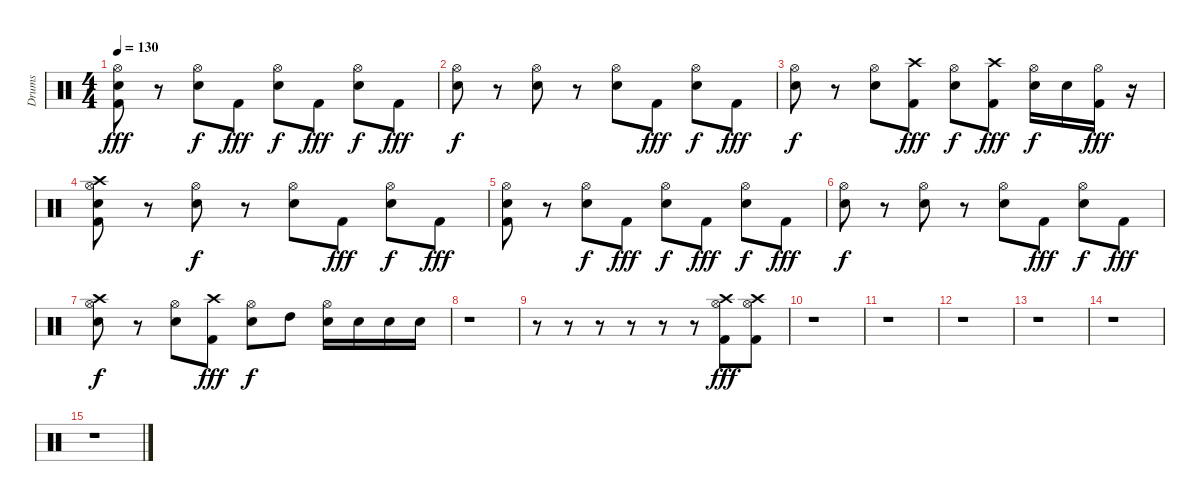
\track ("Drums" "Drums") {instrument percussion}
\staff {score}
\articulation defaults
\ts (4 4)
\tempo 130
\clef neutral
\ks c
("Kick (hit) 2" "Snare (hit) 2" "Hi-Hat (open)").8{dy fff} r.8 ("Snare (hit) 2" "Hi-Hat (open)").8{dy f} "Kick (hit) 2".8{dy fff} ("Snare (hit) 2" "Hi-Hat (open)").8{dy f} "Kick (hit) 2".8{dy fff} ("Snare (hit) 2" "Hi-Hat (open)").8{dy f} "Kick (hit) 2".8{dy fff} |
("Snare (hit) 2" "Hi-Hat (open)").8{dy f} r.8 ("Snare (hit) 2" "Hi-Hat (open)").8 r.8 ("Snare (hit) 2" "Hi-Hat (open)").8 "Kick (hit) 2".8{dy fff} ("Snare (hit) 2" "Hi-Hat (open)").8{dy f} "Kick (hit) 2".8{dy fff} |
("Snare (hit) 2" "Hi-Hat (open)").8{dy f} r.8 ("Snare (hit) 2" "Hi-Hat (open)").8 ("Kick (hit) 2" "Crash high (hit)").8{dy fff} ("Snare (hit) 2" "Hi-Hat (open)").8{dy f} ("Kick (hit) 2" "Crash high (hit)").8{dy fff} ("Snare (hit) 2" "Hi-Hat (open)").16{dy f} "Snare (hit) 2".16 ("Kick (hit) 2" "Hi-Hat (open)").16{dy fff} r.16 |
("Kick (hit) 2" "Snare (hit) 2" "Crash high (hit)" "Hi-Hat (open)").8 r.8 ("Snare (hit) 2" "Hi-Hat (open)").8{dy f} r.8 ("Snare (hit) 2" "Hi-Hat (open)").8 "Kick (hit) 2".8{dy fff} ("Snare (hit) 2" "Hi-Hat (open)").8{dy f} "Kick (hit) 2".8{dy fff} |
("Kick (hit) 2" "Snare (hit) 2" "Hi-Hat (open)").8 r.8 ("Snare (hit) 2" "Hi-Hat (open)").8{dy f} "Kick (hit) 2".8{dy fff} ("Snare (hit) 2" "Hi-Hat (open)").8{dy f} "Kick (hit) 2".8{dy fff} ("Snare (hit) 2" "Hi-Hat (open)").8{dy f} "Kick (hit) 2".8{dy fff} |
("Snare (hit) 2" "Hi-Hat (open)").8{dy f} r.8 ("Snare (hit) 2" "Hi-Hat (open)").8 r.8 ("Snare (hit) 2" "Hi-Hat (open)").8 "Kick (hit) 2".8{dy fff} ("Snare (hit) 2" "Hi-Hat (open)").8{dy f} "Kick (hit) 2".8{dy fff} |
("Snare (hit) 2" "Crash high (hit)" "Hi-Hat (open)").8{dy f} r.8 ("Snare (hit) 2" "Hi-Hat (open)").8 ("Kick (hit) 2" "Crash high (hit)").8{dy fff} ("Snare (hit) 2" "Hi-Hat (open)").8{dy f} "High Tom (hit)".8 ("Snare (hit) 2" "Hi-Hat (open)").16 "Snare (hit) 2".16 "Snare (hit) 2".16 "Snare (hit) 2".16 |
r.1 |
r.8 r.8 r.8 r.8 r.8 r.8 ("Kick (hit) 2" "Crash high (hit)" "Hi-Hat (open)").8{dy fff} ("Kick (hit) 2" "Crash high (hit)" "Hi-Hat (open)").8 |
r.1 |
r.1 |
r.1 |
r.1 |
r.1 |
r.1
